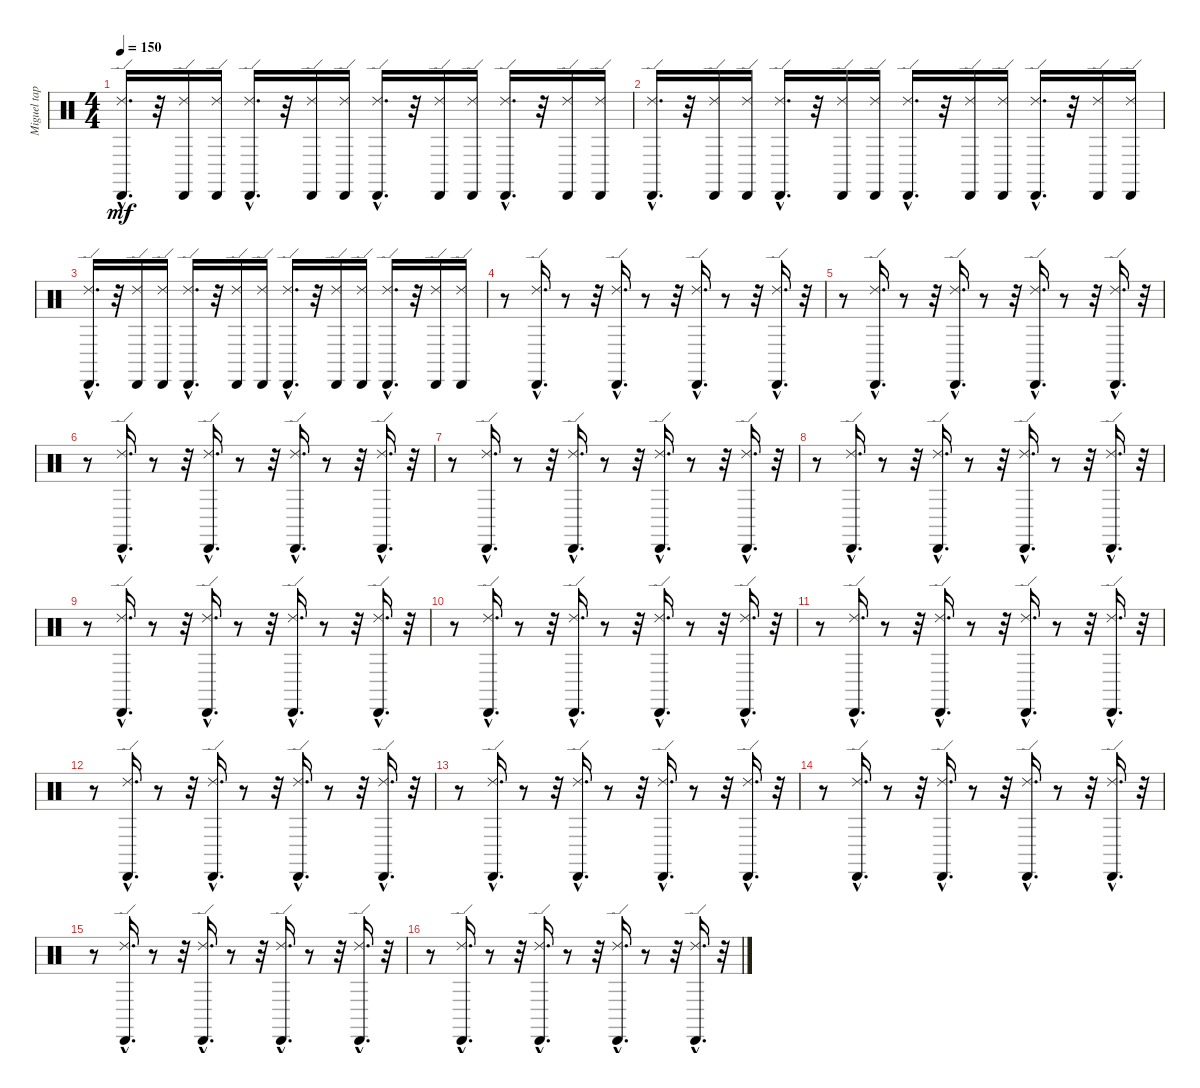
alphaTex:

\track ("Miguel tapia" "Miguel tap") {instrument percussion}
\staff {score}
\articulation defaults
\ts (4 4)
\tempo 150
\clef neutral
\ks c
("Cabasa (hit)"{hac} "Ride (edge) 2"{hac}).16{d dy mf} r.32 ("Cabasa (hit)" "Ride (edge) 2").16 ("Ride (edge) 2" "Cabasa (hit)").16 ("Ride (edge) 2"{hac} "Cabasa (hit)"{hac}).16{d} r.32 ("Cabasa (hit)" "Ride (edge) 2").16 ("Ride (edge) 2" "Cabasa (hit)").16 ("Cabasa (hit)"{hac} "Ride (edge) 2"{hac}).16{d} r.32 ("Cabasa (hit)" "Ride (edge) 2").16 ("Cabasa (hit)" "Ride (edge) 2").16 ("Cabasa (hit)"{hac} "Ride (edge) 2"{hac}).16{d} r.32 ("Cabasa (hit)" "Ride (edge) 2").16 ("Cabasa (hit)" "Ride (edge) 2").16 |
("Ride (edge) 2"{hac} "Cabasa (hit)"{hac}).16{d} r.32 ("Cabasa (hit)" "Ride (edge) 2").16 ("Cabasa (hit)" "Ride (edge) 2").16 ("Cabasa (hit)"{hac} "Ride (edge) 2"{hac}).16{d} r.32 ("Cabasa (hit)" "Ride (edge) 2").16 ("Cabasa (hit)" "Ride (edge) 2").16 ("Cabasa (hit)"{hac} "Ride (edge) 2"{hac}).16{d} r.32 ("Cabasa (hit)" "Ride (edge) 2").16 ("Cabasa (hit)" "Ride (edge) 2").16 ("Ride (edge) 2"{hac} "Cabasa (hit)"{hac}).16{d} r.32 ("Cabasa (hit)" "Ride (edge) 2").16 ("Ride (edge) 2" "Cabasa (hit)").16 |
("Ride (edge) 2"{hac} "Cabasa (hit)"{hac}).16{d} r.32 ("Ride (edge) 2" "Cabasa (hit)").16 ("Cabasa (hit)" "Ride (edge) 2").16 ("Cabasa (hit)"{hac} "Ride (edge) 2"{hac}).16{d} r.32 ("Ride (edge) 2" "Cabasa (hit)").16 ("Cabasa (hit)" "Ride (edge) 2").16 ("Ride (edge) 2"{hac} "Cabasa (hit)"{hac}).16{d} r.32 ("Ride (edge) 2" "Cabasa (hit)").16 ("Ride (edge) 2" "Cabasa (hit)").16 ("Ride (edge) 2"{hac} "Cabasa (hit)"{hac}).16{d} r.32 ("Ride (edge) 2" "Cabasa (hit)").16 ("Ride (edge) 2" "Cabasa (hit)").16 |
r.8 ("Cabasa (hit)"{hac} "Ride (edge) 2"{hac}).16{d} r.8 r.32 ("Cabasa (hit)"{hac} "Ride (edge) 2"{hac}).16{d} r.8 r.32 ("Cabasa (hit)"{hac} "Ride (edge) 2"{hac}).16{d} r.8 r.32 ("Ride (edge) 2"{hac} "Cabasa (hit)"{hac}).16{d} r.32 |
r.8 ("Ride (edge) 2"{hac} "Cabasa (hit)"{hac}).16{d} r.8 r.32 ("Ride (edge) 2"{hac} "Cabasa (hit)"{hac}).16{d} r.8 r.32 ("Ride (edge) 2"{hac} "Cabasa (hit)"{hac}).16{d} r.8 r.32 ("Cabasa (hit)"{hac} "Ride (edge) 2"{hac}).16{d} r.32 |
r.8 ("Ride (edge) 2"{hac} "Cabasa (hit)"{hac}).16{d} r.8 r.32 ("Ride (edge) 2"{hac} "Cabasa (hit)"{hac}).16{d} r.8 r.32 ("Ride (edge) 2"{hac} "Cabasa (hit)"{hac}).16{d} r.8 r.32 ("Cabasa (hit)"{hac} "Ride (edge) 2"{hac}).16{d} r.32 |
r.8 ("Ride (edge) 2"{hac} "Cabasa (hit)"{hac}).16{d} r.8 r.32 ("Ride (edge) 2"{hac} "Cabasa (hit)"{hac}).16{d} r.8 r.32 ("Ride (edge) 2"{hac} "Cabasa (hit)"{hac}).16{d} r.8 r.32 ("Cabasa (hit)"{hac} "Ride (edge) 2"{hac}).16{d} r.32 |
r.8 ("Ride (edge) 2"{hac} "Cabasa (hit)"{hac}).16{d} r.8 r.32 ("Ride (edge) 2"{hac} "Cabasa (hit)"{hac}).16{d} r.8 r.32 ("Ride (edge) 2"{hac} "Cabasa (hit)"{hac}).16{d} r.8 r.32 ("Cabasa (hit)"{hac} "Ride (edge) 2"{hac}).16{d} r.32 |
r.8 ("Ride (edge) 2"{hac} "Cabasa (hit)"{hac}).16{d} r.8 r.32 ("Ride (edge) 2"{hac} "Cabasa (hit)"{hac}).16{d} r.8 r.32 ("Cabasa (hit)"{hac} "Ride (edge) 2"{hac}).16{d} r.8 r.32 ("Cabasa (hit)"{hac} "Ride (edge) 2"{hac}).16{d} r.32 |
r.8 ("Ride (edge) 2"{hac} "Cabasa (hit)"{hac}).16{d} r.8 r.32 ("Cabasa (hit)"{hac} "Ride (edge) 2"{hac}).16{d} r.8 r.32 ("Ride (edge) 2"{hac} "Cabasa (hit)"{hac}).16{d} r.8 r.32 ("Ride (edge) 2"{hac} "Cabasa (hit)"{hac}).16{d} r.32 |
r.8 ("Ride (edge) 2"{hac} "Cabasa (hit)"{hac}).16{d} r.8 r.32 ("Ride (edge) 2"{hac} "Cabasa (hit)"{hac}).16{d} r.8 r.32 ("Cabasa (hit)"{hac} "Ride (edge) 2"{hac}).16{d} r.8 r.32 ("Cabasa (hit)"{hac} "Ride (edge) 2"{hac}).16{d} r.32 |
r.8 ("Ride (edge) 2"{hac} "Cabasa (hit)"{hac}).16{d} r.8 r.32 ("Ride (edge) 2"{hac} "Cabasa (hit)"{hac}).16{d} r.8 r.32 ("Ride (edge) 2"{hac} "Cabasa (hit)"{hac}).16{d} r.8 r.32 ("Cabasa (hit)"{hac} "Ride (edge) 2"{hac}).16{d} r.32 |
r.8 ("Ride (edge) 2"{hac} "Cabasa (hit)"{hac}).16{d} r.8 r.32 ("Ride (edge) 2"{hac} "Cabasa (hit)"{hac}).16{d} r.8 r.32 ("Ride (edge) 2"{hac} "Cabasa (hit)"{hac}).16{d} r.8 r.32 ("Cabasa (hit)"{hac} "Ride (edge) 2"{hac}).16{d} r.32 |
r.8 ("Ride (edge) 2"{hac} "Cabasa (hit)"{hac}).16{d} r.8 r.32 ("Ride (edge) 2"{hac} "Cabasa (hit)"{hac}).16{d} r.8 r.32 ("Ride (edge) 2"{hac} "Cabasa (hit)"{hac}).16{d} r.8 r.32 ("Cabasa (hit)"{hac} "Ride (edge) 2"{hac}).16{d} r.32 |
r.8 ("Ride (edge) 2"{hac} "Cabasa (hit)"{hac}).16{d} r.8 r.32 ("Ride (edge) 2"{hac} "Cabasa (hit)"{hac}).16{d} r.8 r.32 ("Ride (edge) 2"{hac} "Cabasa (hit)"{hac}).16{d} r.8 r.32 ("Cabasa (hit)"{hac} "Ride (edge) 2"{hac}).16{d} r.32 |
r.8 ("Ride (edge) 2"{hac} "Cabasa (hit)"{hac}).16{d} r.8 r.32 ("Ride (edge) 2"{hac} "Cabasa (hit)"{hac}).16{d} r.8 r.32 ("Ride (edge) 2"{hac} "Cabasa (hit)"{hac}).16{d} r.8 r.32 ("Cabasa (hit)"{hac} "Ride (edge) 2"{hac}).16{d} r.32
